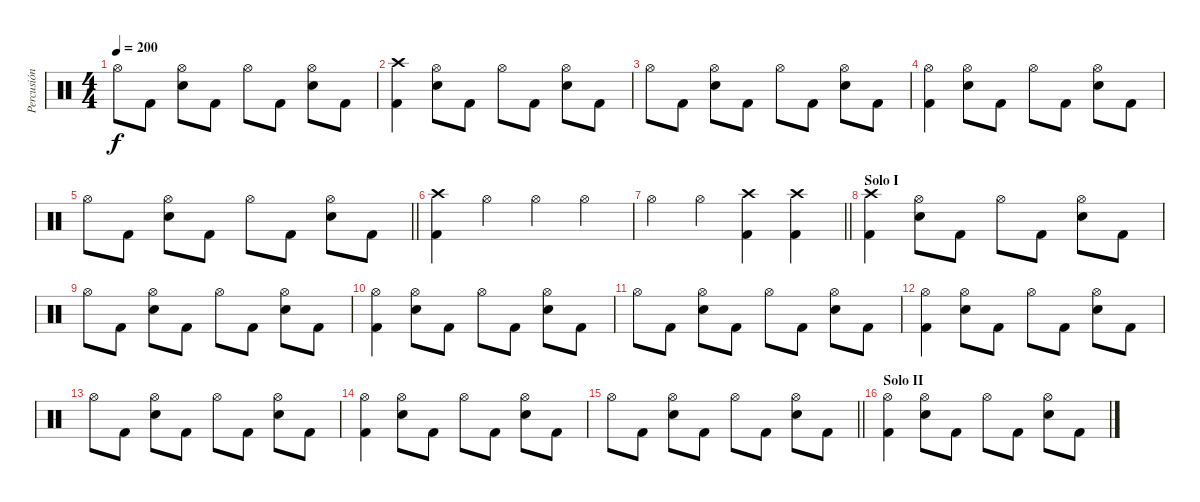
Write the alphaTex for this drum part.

\track ("Percusión" "Percusión") {instrument percussion}
\staff {score}
\articulation defaults
\ts (4 4)
\tempo 200
\clef neutral
\ks c "Hi-Hat (open)".8{dy f} "Kick (hit) 2".8
("Hi-Hat (open)" "Electric Snare (hit)").8 "Kick (hit) 2".8 "Hi-Hat (open)".8 "Kick (hit) 2".8 ("Hi-Hat (open)" "Electric Snare (hit)").8 "Kick (hit) 2".8 |
("Crash high (hit)" "Kick (hit) 2").4 ("Hi-Hat (open)" "Electric Snare (hit)").8 "Kick (hit) 2".8 "Hi-Hat (open)".8 "Kick (hit) 2".8 ("Hi-Hat (open)" "Electric Snare (hit)").8 "Kick (hit) 2".8 |
"Hi-Hat (open)".8 "Kick (hit) 2".8 ("Hi-Hat (open)" "Electric Snare (hit)").8 "Kick (hit) 2".8 "Hi-Hat (open)".8 "Kick (hit) 2".8 ("Hi-Hat (open)" "Electric Snare (hit)").8 "Kick (hit) 2".8 |
("Hi-Hat (open)" "Kick (hit) 2").4 ("Hi-Hat (open)" "Electric Snare (hit)").8 "Kick (hit) 2".8 "Hi-Hat (open)".8 "Kick (hit) 2".8 ("Hi-Hat (open)" "Electric Snare (hit)").8 "Kick (hit) 2".8 |
\barLineRight lightlight "Hi-Hat (open)".8 "Kick (hit) 2".8
("Hi-Hat (open)" "Electric Snare (hit)").8 "Kick (hit) 2".8 "Hi-Hat (open)".8 "Kick (hit) 2".8 ("Hi-Hat (open)" "Electric Snare (hit)").8 "Kick (hit) 2".8 |
("Crash high (hit)" "Kick (hit) 2").4 "Hi-Hat (open)".4 "Hi-Hat (open)".4 "Hi-Hat (open)".4 |
\barLineRight lightlight "Hi-Hat (open)".4 "Hi-Hat (open)".4
("Crash high (hit)" "Kick (hit) 2").4 ("Crash high (hit)" "Kick (hit) 2").4 |
\section ("" "Solo I")
("Crash high (hit)" "Kick (hit) 2").4 ("Hi-Hat (open)" "Electric Snare (hit)").8 "Kick (hit) 2".8 "Hi-Hat (open)".8 "Kick (hit) 2".8 ("Hi-Hat (open)" "Electric Snare (hit)").8 "Kick (hit) 2".8 |
"Hi-Hat (open)".8 "Kick (hit) 2".8 ("Hi-Hat (open)" "Electric Snare (hit)").8 "Kick (hit) 2".8 "Hi-Hat (open)".8 "Kick (hit) 2".8 ("Hi-Hat (open)" "Electric Snare (hit)").8 "Kick (hit) 2".8 |
("Hi-Hat (open)" "Kick (hit) 2").4 ("Hi-Hat (open)" "Electric Snare (hit)").8 "Kick (hit) 2".8 "Hi-Hat (open)".8 "Kick (hit) 2".8 ("Hi-Hat (open)" "Electric Snare (hit)").8 "Kick (hit) 2".8 |
"Hi-Hat (open)".8 "Kick (hit) 2".8 ("Hi-Hat (open)" "Electric Snare (hit)").8 "Kick (hit) 2".8 "Hi-Hat (open)".8 "Kick (hit) 2".8 ("Hi-Hat (open)" "Electric Snare (hit)").8 "Kick (hit) 2".8 |
("Hi-Hat (open)" "Kick (hit) 2").4 ("Hi-Hat (open)" "Electric Snare (hit)").8 "Kick (hit) 2".8 "Hi-Hat (open)".8 "Kick (hit) 2".8 ("Hi-Hat (open)" "Electric Snare (hit)").8 "Kick (hit) 2".8 |
"Hi-Hat (open)".8 "Kick (hit) 2".8 ("Hi-Hat (open)" "Electric Snare (hit)").8 "Kick (hit) 2".8 "Hi-Hat (open)".8 "Kick (hit) 2".8 ("Hi-Hat (open)" "Electric Snare (hit)").8 "Kick (hit) 2".8 |
("Hi-Hat (open)" "Kick (hit) 2").4 ("Hi-Hat (open)" "Electric Snare (hit)").8 "Kick (hit) 2".8 "Hi-Hat (open)".8 "Kick (hit) 2".8 ("Hi-Hat (open)" "Electric Snare (hit)").8 "Kick (hit) 2".8 |
\barLineRight lightlight "Hi-Hat (open)".8 "Kick (hit) 2".8
("Hi-Hat (open)" "Electric Snare (hit)").8 "Kick (hit) 2".8 "Hi-Hat (open)".8 "Kick (hit) 2".8 ("Hi-Hat (open)" "Electric Snare (hit)").8 "Kick (hit) 2".8 |
\section ("" "Solo II")
("Hi-Hat (open)" "Kick (hit) 2").4 ("Hi-Hat (open)" "Electric Snare (hit)").8 "Kick (hit) 2".8 "Hi-Hat (open)".8 "Kick (hit) 2".8 ("Hi-Hat (open)" "Electric Snare (hit)").8 "Kick (hit) 2".8
